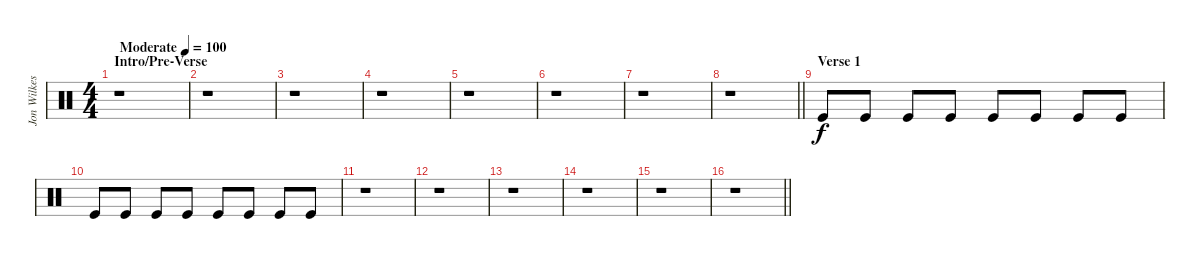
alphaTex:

\track ("Jon Wilkes" "Jon Wilkes") {solo instrument percussion}
\staff {score}
\articulation defaults
\ts (4 4)
\section ("" "Intro/Pre-Verse")
\tempo (100 "Moderate")
\clef neutral
\ks c
r.1{dy f} |
r.1 |
r.1 |
r.1 |
r.1 |
r.1 |
r.1 |
\barLineRight lightlight
r.1 |
\section ("" "Verse 1")
"Kick (hit)".8 "Kick (hit)".8 "Kick (hit)".8 "Kick (hit)".8 "Kick (hit)".8 "Kick (hit)".8 "Kick (hit)".8 "Kick (hit)".8 |
"Kick (hit)".8 "Kick (hit)".8 "Kick (hit)".8 "Kick (hit)".8 "Kick (hit)".8 "Kick (hit)".8 "Kick (hit)".8 "Kick (hit)".8 |
r.1 |
r.1 |
r.1 |
r.1 |
r.1 |
\barLineRight lightlight
r.1
